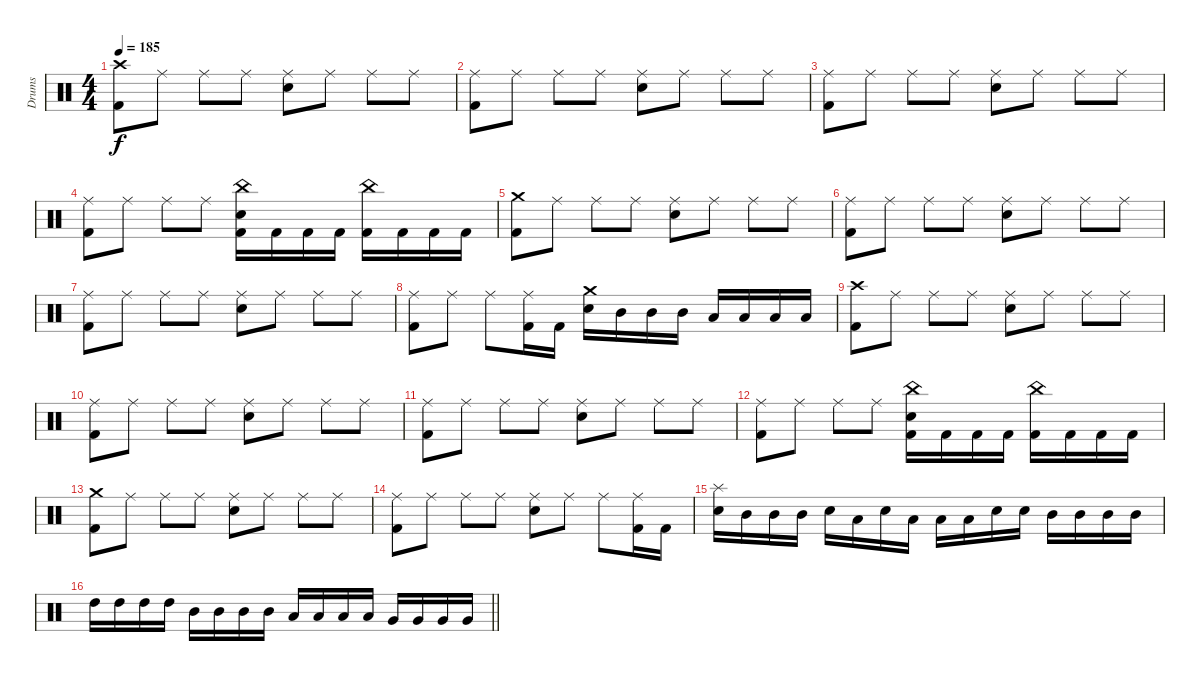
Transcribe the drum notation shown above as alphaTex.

\track ("Drums" "Drums") {instrument percussion}
\staff {score}
\articulation defaults
\ts (4 4)
\section ("" "")
\tempo 185
\clef neutral
\ks c
("Crash high (hit)" "Kick (hit) 2").8{dy f} "Ride (middle)".8 "Ride (middle)".8 "Ride (middle)".8 ("Ride (middle)" "Electric Snare (hit)").8 "Ride (middle)".8 "Ride (middle)".8 "Ride (middle)".8 |
("Ride (middle)" "Kick (hit) 2").8 "Ride (middle)".8 "Ride (middle)".8 "Ride (middle)".8 ("Ride (middle)" "Electric Snare (hit)").8 "Ride (middle)".8 "Ride (middle)".8 "Ride (middle)".8 |
("Ride (middle)" "Kick (hit) 2").8 "Ride (middle)".8 "Ride (middle)".8 "Ride (middle)".8 ("Ride (middle)" "Electric Snare (hit)").8 "Ride (middle)".8 "Ride (middle)".8 "Ride (middle)".8 |
("Ride (middle)" "Kick (hit) 2").8 "Ride (middle)".8 "Ride (middle)".8 "Ride (middle)".8 ("China (hit)" "Electric Snare (hit)" "Kick (hit) 2").16 "Kick (hit) 2".16 "Kick (hit) 2".16 "Kick (hit) 2".16 ("China (hit)" "Kick (hit) 2").16 "Kick (hit) 2".16 "Kick (hit) 2".16 "Kick (hit) 2".16 |
("Crash medium (hit)" "Kick (hit) 2").8 "Ride (middle)".8 "Ride (middle)".8 "Ride (middle)".8 ("Ride (middle)" "Electric Snare (hit)").8 "Ride (middle)".8 "Ride (middle)".8 "Ride (middle)".8 |
("Ride (middle)" "Kick (hit) 2").8 "Ride (middle)".8 "Ride (middle)".8 "Ride (middle)".8 ("Ride (middle)" "Electric Snare (hit)").8 "Ride (middle)".8 "Ride (middle)".8 "Ride (middle)".8 |
("Ride (middle)" "Kick (hit) 2").8 "Ride (middle)".8 "Ride (middle)".8 "Ride (middle)".8 ("Ride (middle)" "Electric Snare (hit)").8 "Ride (middle)".8 "Ride (middle)".8 "Ride (middle)".8 |
("Ride (middle)" "Kick (hit) 2").8 "Ride (middle)".8 "Ride (middle)".8 ("Ride (middle)" "Kick (hit) 2").16 "Kick (hit) 2".16 ("Crash medium (hit)" "Electric Snare (hit)").16 "Mid Tom (hit)".16 "Mid Tom (hit)".16 "Mid Tom (hit)".16 "Low Tom (hit)".16 "Low Tom (hit)".16 "Low Tom (hit)".16 "Low Tom (hit)".16 |
("Crash high (hit)" "Kick (hit) 2").8 "Ride (middle)".8 "Ride (middle)".8 "Ride (middle)".8 ("Ride (middle)" "Electric Snare (hit)").8 "Ride (middle)".8 "Ride (middle)".8 "Ride (middle)".8 |
("Ride (middle)" "Kick (hit) 2").8 "Ride (middle)".8 "Ride (middle)".8 "Ride (middle)".8 ("Ride (middle)" "Electric Snare (hit)").8 "Ride (middle)".8 "Ride (middle)".8 "Ride (middle)".8 |
("Ride (middle)" "Kick (hit) 2").8 "Ride (middle)".8 "Ride (middle)".8 "Ride (middle)".8 ("Ride (middle)" "Electric Snare (hit)").8 "Ride (middle)".8 "Ride (middle)".8 "Ride (middle)".8 |
("Ride (middle)" "Kick (hit) 2").8 "Ride (middle)".8 "Ride (middle)".8 "Ride (middle)".8 ("China (hit)" "Electric Snare (hit)" "Kick (hit) 2").16 "Kick (hit) 2".16 "Kick (hit) 2".16 "Kick (hit) 2".16 ("China (hit)" "Kick (hit) 2").16 "Kick (hit) 2".16 "Kick (hit) 2".16 "Kick (hit) 2".16 |
("Crash medium (hit)" "Kick (hit) 2").8 "Ride (middle)".8 "Ride (middle)".8 "Ride (middle)".8 ("Ride (middle)" "Electric Snare (hit)").8 "Ride (middle)".8 "Ride (middle)".8 "Ride (middle)".8 |
("Ride (middle)" "Kick (hit) 2").8 "Ride (middle)".8 "Ride (middle)".8 "Ride (middle)".8 ("Ride (middle)" "Electric Snare (hit)").8 "Ride (middle)".8 "Ride (middle)".8 ("Ride (middle)" "Kick (hit) 2").16 "Kick (hit) 2".16 |
("Splash (hit)" "Electric Snare (hit)").16 "Mid Tom (hit)".16 "Mid Tom (hit)".16 "Mid Tom (hit)".16 "Electric Snare (hit)".16 "Low Tom (hit)".16 "Electric Snare (hit)".16 "Low Tom (hit)".16 "Low Tom (hit)".16 "Low Tom (hit)".16 "Electric Snare (hit)".16 "Electric Snare (hit)".16 "Mid Tom (hit)".16 "Mid Tom (hit)".16 "Mid Tom (hit)".16 "Mid Tom (hit)".16 |
\barLineRight lightlight "High Tom (hit)".16 "High Tom (hit)".16 "High Tom (hit)".16 "High Tom (hit)".16 "Mid Tom (hit)".16 "Mid Tom (hit)".16 "Mid Tom (hit)".16 "Mid Tom (hit)".16 "Low Tom (hit)".16 "Low Tom (hit)".16 "Low Tom (hit)".16 "Low Tom (hit)".16 "Very Low Tom (hit)".16 "Very Low Tom (hit)".16 "Very Low Tom (hit)".16 "Very Low Tom (hit)".16
